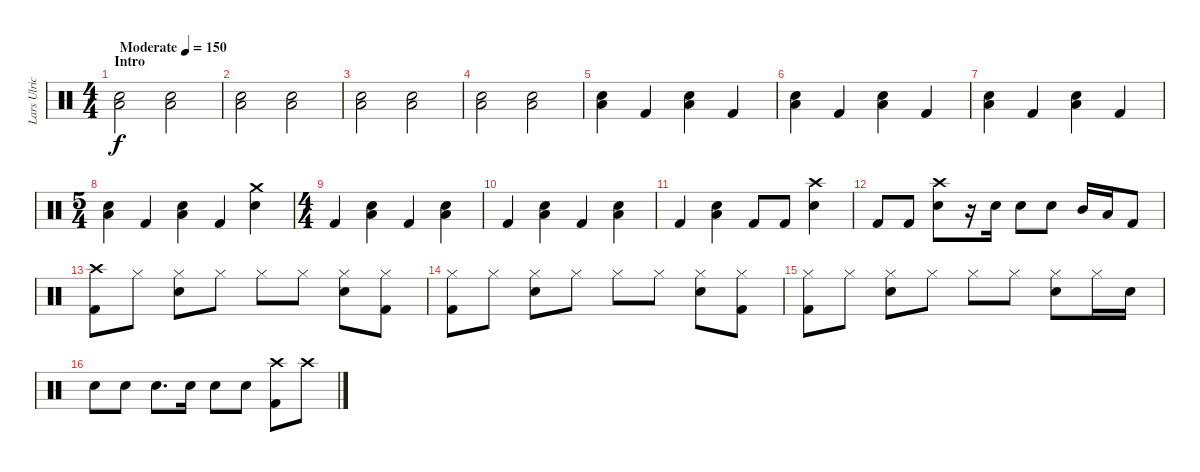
\track ("Lars Ulrich" "Lars Ulric") {instrument percussion}
\staff {score}
\articulation defaults
\ts (4 4)
\section ("" "Intro")
\tempo (150 "Moderate")
\clef neutral
\ks c
("Snare (hit) 2" "Low Floor Tom (hit)").2{dy f} ("Snare (hit) 2" "Low Floor Tom (hit)").2 |
("Snare (hit) 2" "Low Floor Tom (hit)").2 ("Snare (hit) 2" "Low Floor Tom (hit)").2 |
("Snare (hit) 2" "Low Floor Tom (hit)").2 ("Snare (hit) 2" "Low Floor Tom (hit)").2 |
("Snare (hit) 2" "Low Floor Tom (hit)").2 ("Snare (hit) 2" "Low Floor Tom (hit)").2 |
("Snare (hit) 2" "Low Floor Tom (hit)").4 "Kick (hit) 2".4 ("Snare (hit) 2" "Low Floor Tom (hit)").4 "Kick (hit) 2".4 |
("Snare (hit) 2" "Low Floor Tom (hit)").4 "Kick (hit) 2".4 ("Snare (hit) 2" "Low Floor Tom (hit)").4 "Kick (hit) 2".4 |
("Snare (hit) 2" "Low Floor Tom (hit)").4 "Kick (hit) 2".4 ("Snare (hit) 2" "Low Floor Tom (hit)").4 "Kick (hit) 2".4 |
\ts (5 4)
("Snare (hit) 2" "Low Floor Tom (hit)").4 "Kick (hit) 2".4 ("Snare (hit) 2" "Low Floor Tom (hit)").4 "Kick (hit) 2".4 ("Crash medium (hit)" "Snare (hit) 2").4 |
\ts (4 4)
"Kick (hit) 2".4 ("Low Floor Tom (hit)" "Snare (hit) 2").4 "Kick (hit) 2".4 ("Low Floor Tom (hit)" "Snare (hit) 2").4 |
"Kick (hit) 2".4 ("Low Floor Tom (hit)" "Snare (hit) 2").4 "Kick (hit) 2".4 ("Low Floor Tom (hit)" "Snare (hit) 2").4 |
"Kick (hit) 2".4 ("Low Floor Tom (hit)" "Snare (hit) 2").4 "Kick (hit) 2".8 "Kick (hit) 2".8 ("Crash high (hit)" "Snare (hit) 2").4 |
"Kick (hit) 2".8 "Kick (hit) 2".8 ("Crash high (hit)" "Snare (hit) 2").8 r.16 "Snare (hit) 2".16 "Snare (hit) 2".8 "Snare (hit) 2".8 "Mid Tom (hit)".16 "Low Tom (hit)".16 "Kick (hit) 2".8 |
("Crash high (hit)" "Kick (hit) 2").8 "Hi-Hat (closed)".8 ("Hi-Hat (closed)" "Snare (hit) 2").8 "Hi-Hat (closed)".8 "Hi-Hat (closed)".8 "Hi-Hat (closed)".8 ("Hi-Hat (closed)" "Snare (hit) 2").8 ("Hi-Hat (closed)" "Kick (hit) 2").8 |
("Hi-Hat (closed)" "Kick (hit) 2").8 "Hi-Hat (closed)".8 ("Hi-Hat (closed)" "Snare (hit) 2").8 "Hi-Hat (closed)".8 "Hi-Hat (closed)".8 "Hi-Hat (closed)".8 ("Hi-Hat (closed)" "Snare (hit) 2").8 ("Hi-Hat (closed)" "Kick (hit) 2").8 |
("Hi-Hat (closed)" "Kick (hit) 2").8 "Hi-Hat (closed)".8 ("Hi-Hat (closed)" "Snare (hit) 2").8 "Hi-Hat (closed)".8 "Hi-Hat (closed)".8 "Hi-Hat (closed)".8 ("Hi-Hat (closed)" "Snare (hit) 2").8 "Hi-Hat (closed)".16 "Snare (hit) 2".16 |
"Snare (hit) 2".8 "Snare (hit) 2".8 "Snare (hit) 2".8{d} "Snare (hit) 2".16 "Snare (hit) 2".8 "Snare (hit) 2".8 ("Crash high (hit)" "Kick (hit) 2").8 "Crash high (hit)".8{volume 0}
